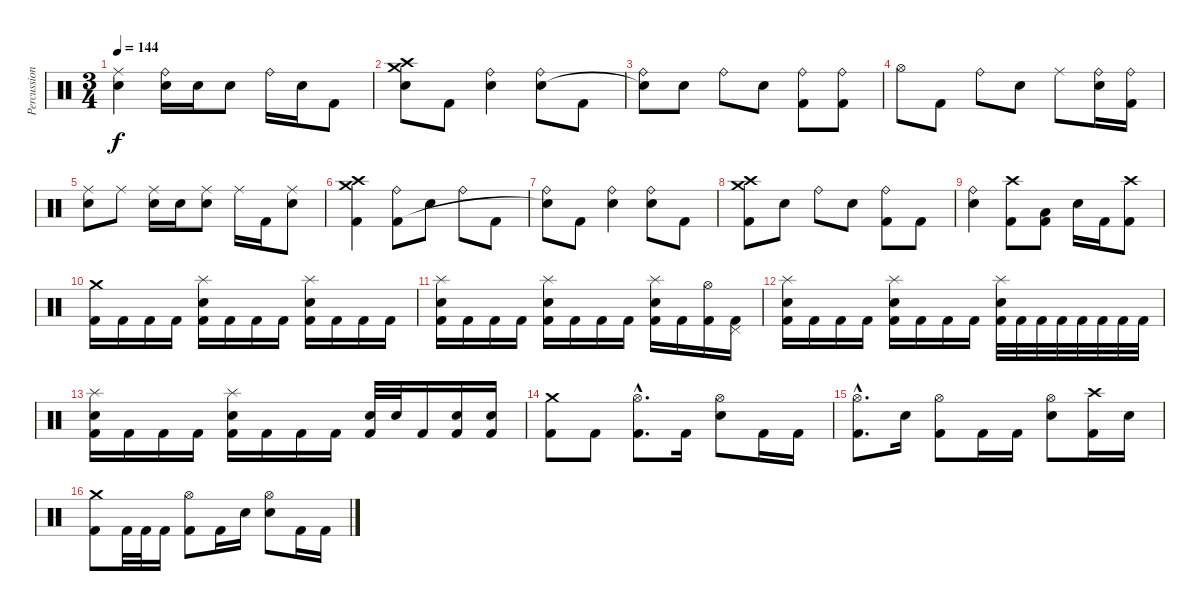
\track ("Percussion" "Percussion") {instrument percussion}
\staff {score}
\articulation defaults
\ts (3 4)
\tempo 144
\clef neutral
\ks c
("Ride (middle)" "Electric Snare (hit)").4{dy f} ("Ride (bell)" "Electric Snare (hit)").16 "Electric Snare (hit)".16 "Electric Snare (hit)".8 "Ride (bell)".16 "Electric Snare (hit)".16 "Kick (hit) 2".8 |
("Crash high (hit)" "Crash medium (hit)" "Snare (hit)").8 "Kick (hit) 2".8 ("Ride (bell)" "Electric Snare (hit)").4 ("Ride (bell)" "Electric Snare (hit)").8 "Kick (hit) 2".8 |
("Ride (bell)" "Snare (hit)"{t}).8 "Electric Snare (hit)".8 "Ride (bell)".8 "Electric Snare (hit)".8 ("Ride (bell)" "Kick (hit) 2").8 ("Ride (bell)" "Kick (hit) 2").8 |
"Hi-Hat (open)".8 "Kick (hit) 2".8 "Ride (bell)".8 "Electric Snare (hit)".8 "Ride (middle)".8 ("Ride (bell)" "Electric Snare (hit)").16 ("Ride (bell)" "Kick (hit) 2").16 |
("Ride (middle)" "Electric Snare (hit)").8 "Ride (middle)".8 ("Ride (middle)" "Electric Snare (hit)").16 "Electric Snare (hit)".16 ("Ride (middle)" "Electric Snare (hit)").8 "Ride (middle)".16 "Kick (hit) 2".16 ("Ride (middle)" "Electric Snare (hit)").8 |
("Crash high (hit)" "Crash medium (hit)" "Kick (hit) 2").4 ("Ride (bell)" "Kick (hit) 2").8 "Electric Snare (hit)".8 "Ride (bell)".8 "Kick (hit) 2".8 |
("Ride (bell)" "Snare (hit)"{t}).8 "Kick (hit) 2".8 ("Ride (bell)" "Electric Snare (hit)").4 ("Ride (bell)" "Electric Snare (hit)").8 "Kick (hit) 2".8 |
("Crash high (hit)" "Crash medium (hit)" "Kick (hit) 2").8 "Electric Snare (hit)".8 "Ride (bell)".8 "Electric Snare (hit)".8 ("Ride (bell)" "Kick (hit) 2").8 "Kick (hit) 2".8 |
("Ride (bell)" "Electric Snare (hit)").4 ("Crash high (hit)" "Kick (hit) 2").8 ("Low Tom (hit)" "Kick (hit) 2").8 "Electric Snare (hit)".16 "Kick (hit) 2".16 ("Crash high (hit)" "Kick (hit) 2").8 |
("Crash medium (hit)" "Kick (hit) 2").16 "Kick (hit) 2".16 "Kick (hit) 2".16 "Kick (hit) 2".16 ("Splash (hit)" "Electric Snare (hit)" "Kick (hit) 2").16 "Kick (hit) 2".16 "Kick (hit) 2".16 "Kick (hit) 2".16 ("Splash (hit)" "Electric Snare (hit)" "Kick (hit) 2").16 "Kick (hit) 2".16 "Kick (hit) 2".16 "Kick (hit) 2".16 |
("Splash (hit)" "Electric Snare (hit)" "Kick (hit) 2").16 "Kick (hit) 2".16 "Kick (hit) 2".16 "Kick (hit) 2".16 ("Splash (hit)" "Electric Snare (hit)" "Kick (hit) 2").16 "Kick (hit) 2".16 "Kick (hit) 2".16 "Kick (hit) 2".16 ("Splash (hit)" "Electric Snare (hit)" "Kick (hit) 2").16 "Kick (hit) 2".16 ("Hi-Hat (open)" "Kick (hit) 2").16 ("Pedal Hi-Hat (hit)" "Kick (hit) 2").16 |
("Splash (hit)" "Electric Snare (hit)" "Kick (hit) 2").16 "Kick (hit) 2".16 "Kick (hit) 2".16 "Kick (hit) 2".16 ("Splash (hit)" "Electric Snare (hit)" "Kick (hit) 2").16 "Kick (hit) 2".16 "Kick (hit) 2".16 "Kick (hit) 2".16 ("Splash (hit)" "Electric Snare (hit)" "Kick (hit) 2").32 "Kick (hit) 2".32 "Kick (hit) 2".32 "Kick (hit) 2".32 "Kick (hit) 2".32 "Kick (hit) 2".32 "Kick (hit) 2".32 "Kick (hit) 2".32 |
("Splash (hit)" "Electric Snare (hit)" "Kick (hit) 2").16 "Kick (hit) 2".16 "Kick (hit) 2".16 "Kick (hit) 2".16 ("Splash (hit)" "Electric Snare (hit)" "Kick (hit) 2").16 "Kick (hit) 2".16 "Kick (hit) 2".16 "Kick (hit) 2".16 ("Electric Snare (hit)" "Kick (hit) 2").32 "Electric Snare (hit)".32 "Kick (hit) 2".16 ("Electric Snare (hit)" "Kick (hit) 2").16 ("Electric Snare (hit)" "Kick (hit) 2").16 |
("Crash medium (hit)" "Kick (hit) 2").8 "Kick (hit) 2".8 ("Hi-Hat (open)"{hac} "Kick (hit) 2"{hac}).8{d} "Kick (hit) 2".16 ("Hi-Hat (open)" "Electric Snare (hit)").8 "Kick (hit) 2".16 "Kick (hit) 2".16 |
("Hi-Hat (open)"{hac} "Kick (hit) 2"{hac}).8{d} "Electric Snare (hit)".16 ("Hi-Hat (open)" "Kick (hit) 2").8 "Kick (hit) 2".16 "Kick (hit) 2".16 ("Hi-Hat (open)" "Electric Snare (hit)").8 ("Crash high (hit)" "Kick (hit) 2").16 "Electric Snare (hit)".16 |
("Crash medium (hit)" "Kick (hit) 2").8 "Kick (hit) 2".32 "Kick (hit) 2".32 "Kick (hit) 2".16 ("Hi-Hat (open)" "Kick (hit) 2").8 "Kick (hit) 2".16 "Electric Snare (hit)".16 ("Hi-Hat (open)" "Electric Snare (hit)").8 "Kick (hit) 2".16 "Kick (hit) 2".16
